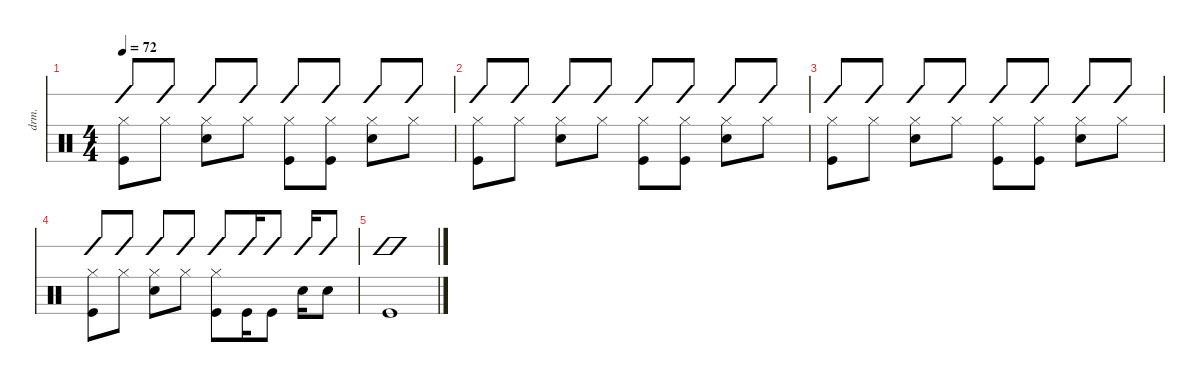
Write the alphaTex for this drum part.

\defaultSystemsLayout 4
\hideDynamics
\bracketExtendMode nobrackets
\otherSystemsTrackNameOrientation horizontal
\track ("Drumkit" "drm.") {instrument percussion}
\staff {score slash}
\articulation defaults
\ts (4 4)
\tempo 72
\clef neutral
\ks c
("Hi-Hat (closed)" "Kick (hit)").8{dy mf beam Down} "Hi-Hat (closed)".8{beam Down} ("Hi-Hat (closed)" "Snare (hit) 2").8{beam Down} "Hi-Hat (closed)".8{beam Down} ("Hi-Hat (closed)" "Kick (hit)").8{beam Down} ("Hi-Hat (closed)" "Kick (hit)").8{beam Down} ("Hi-Hat (closed)" "Snare (hit) 2").8{beam Down} "Hi-Hat (closed)".8{beam Down} |
("Hi-Hat (closed)" "Kick (hit)").8{beam Down} "Hi-Hat (closed)".8{beam Down} ("Hi-Hat (closed)" "Snare (hit) 2").8{beam Down} "Hi-Hat (closed)".8{beam Down} ("Hi-Hat (closed)" "Kick (hit)").8{beam Down} ("Hi-Hat (closed)" "Kick (hit)").8{beam Down} ("Hi-Hat (closed)" "Snare (hit) 2").8{beam Down} "Hi-Hat (closed)".8{beam Down} |
("Hi-Hat (closed)" "Kick (hit)").8{beam Down} "Hi-Hat (closed)".8{beam Down} ("Hi-Hat (closed)" "Snare (hit) 2").8{beam Down} "Hi-Hat (closed)".8{beam Down} ("Hi-Hat (closed)" "Kick (hit)").8{beam Down} ("Hi-Hat (closed)" "Kick (hit)").8{beam Down} ("Hi-Hat (closed)" "Snare (hit) 2").8{beam Down} "Hi-Hat (closed)".8{beam Down} |
("Hi-Hat (closed)" "Kick (hit)").8{beam Down} "Hi-Hat (closed)".8{beam Down} ("Hi-Hat (closed)" "Snare (hit) 2").8{beam Down} "Hi-Hat (closed)".8{beam Down} ("Hi-Hat (closed)" "Kick (hit)").8{beam Down} "Kick (hit)".16{beam Down} "Kick (hit)".8{beam Down} "Snare (hit) 2".16{beam Down} "Snare (hit) 2".8{beam Down} |
"Kick (hit)".1{beam Up}
